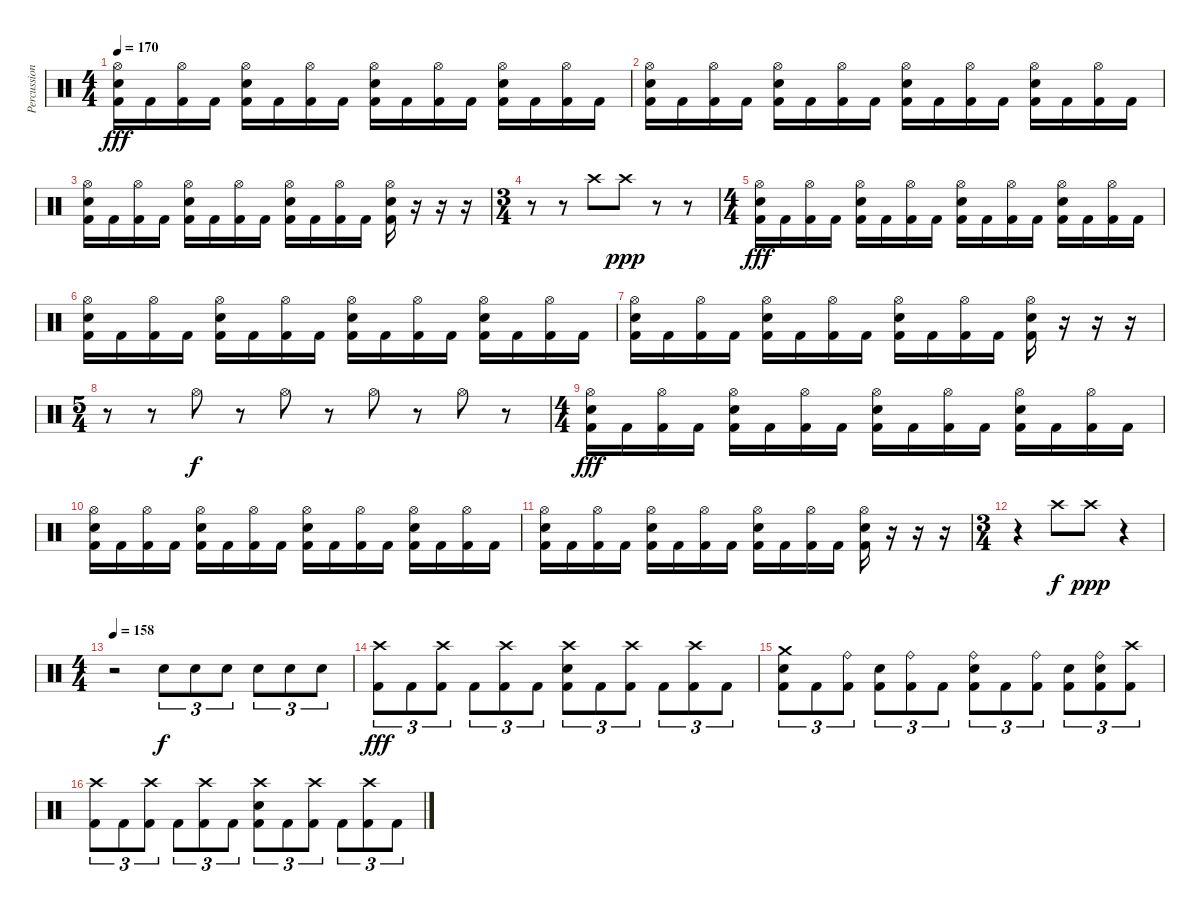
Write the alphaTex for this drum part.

\track ("Percussion" "Percussion") {instrument percussion}
\staff {score}
\articulation defaults
\ts (4 4)
\tempo 170
\clef neutral
\ks c
("Hi-Hat (open)" "Electric Snare (hit)" "Kick (hit) 2").16{dy fff} "Kick (hit) 2".16 ("Hi-Hat (open)" "Kick (hit) 2").16 "Kick (hit) 2".16 ("Hi-Hat (open)" "Electric Snare (hit)" "Kick (hit) 2").16 "Kick (hit) 2".16 ("Hi-Hat (open)" "Kick (hit) 2").16 "Kick (hit) 2".16 ("Hi-Hat (open)" "Electric Snare (hit)" "Kick (hit) 2").16 "Kick (hit) 2".16 ("Hi-Hat (open)" "Kick (hit) 2").16 "Kick (hit) 2".16 ("Hi-Hat (open)" "Electric Snare (hit)" "Kick (hit) 2").16 "Kick (hit) 2".16 ("Hi-Hat (open)" "Kick (hit) 2").16 "Kick (hit) 2".16 |
("Hi-Hat (open)" "Electric Snare (hit)" "Kick (hit) 2").16 "Kick (hit) 2".16 ("Hi-Hat (open)" "Kick (hit) 2").16 "Kick (hit) 2".16 ("Hi-Hat (open)" "Electric Snare (hit)" "Kick (hit) 2").16 "Kick (hit) 2".16 ("Hi-Hat (open)" "Kick (hit) 2").16 "Kick (hit) 2".16 ("Hi-Hat (open)" "Electric Snare (hit)" "Kick (hit) 2").16 "Kick (hit) 2".16 ("Hi-Hat (open)" "Kick (hit) 2").16 "Kick (hit) 2".16 ("Hi-Hat (open)" "Electric Snare (hit)" "Kick (hit) 2").16 "Kick (hit) 2".16 ("Hi-Hat (open)" "Kick (hit) 2").16 "Kick (hit) 2".16 |
("Hi-Hat (open)" "Electric Snare (hit)" "Kick (hit) 2").16 "Kick (hit) 2".16 ("Hi-Hat (open)" "Kick (hit) 2").16 "Kick (hit) 2".16 ("Hi-Hat (open)" "Electric Snare (hit)" "Kick (hit) 2").16 "Kick (hit) 2".16 ("Hi-Hat (open)" "Kick (hit) 2").16 "Kick (hit) 2".16 ("Hi-Hat (open)" "Electric Snare (hit)" "Kick (hit) 2").16 "Kick (hit) 2".16 ("Hi-Hat (open)" "Kick (hit) 2").16 "Kick (hit) 2".16 ("Hi-Hat (open)" "Electric Snare (hit)" "Kick (hit) 2").16 r.16 r.16 r.16 |
\ts (3 4)
r.8 r.8 "Crash high (hit)".8 "Crash high (hit)".8{dy ppp} r.8 r.8 |
\ts (4 4)
("Hi-Hat (open)" "Electric Snare (hit)" "Kick (hit) 2").16{dy fff} "Kick (hit) 2".16 ("Hi-Hat (open)" "Kick (hit) 2").16 "Kick (hit) 2".16 ("Hi-Hat (open)" "Electric Snare (hit)" "Kick (hit) 2").16 "Kick (hit) 2".16 ("Hi-Hat (open)" "Kick (hit) 2").16 "Kick (hit) 2".16 ("Hi-Hat (open)" "Electric Snare (hit)" "Kick (hit) 2").16 "Kick (hit) 2".16 ("Hi-Hat (open)" "Kick (hit) 2").16 "Kick (hit) 2".16 ("Hi-Hat (open)" "Electric Snare (hit)" "Kick (hit) 2").16 "Kick (hit) 2".16 ("Hi-Hat (open)" "Kick (hit) 2").16 "Kick (hit) 2".16 |
("Hi-Hat (open)" "Electric Snare (hit)" "Kick (hit) 2").16 "Kick (hit) 2".16 ("Hi-Hat (open)" "Kick (hit) 2").16 "Kick (hit) 2".16 ("Hi-Hat (open)" "Electric Snare (hit)" "Kick (hit) 2").16 "Kick (hit) 2".16 ("Hi-Hat (open)" "Kick (hit) 2").16 "Kick (hit) 2".16 ("Hi-Hat (open)" "Electric Snare (hit)" "Kick (hit) 2").16 "Kick (hit) 2".16 ("Hi-Hat (open)" "Kick (hit) 2").16 "Kick (hit) 2".16 ("Hi-Hat (open)" "Electric Snare (hit)" "Kick (hit) 2").16 "Kick (hit) 2".16 ("Hi-Hat (open)" "Kick (hit) 2").16 "Kick (hit) 2".16 |
("Hi-Hat (open)" "Electric Snare (hit)" "Kick (hit) 2").16 "Kick (hit) 2".16 ("Hi-Hat (open)" "Kick (hit) 2").16 "Kick (hit) 2".16 ("Hi-Hat (open)" "Electric Snare (hit)" "Kick (hit) 2").16 "Kick (hit) 2".16 ("Hi-Hat (open)" "Kick (hit) 2").16 "Kick (hit) 2".16 ("Hi-Hat (open)" "Electric Snare (hit)" "Kick (hit) 2").16 "Kick (hit) 2".16 ("Hi-Hat (open)" "Kick (hit) 2").16 "Kick (hit) 2".16 ("Hi-Hat (open)" "Electric Snare (hit)" "Kick (hit) 2").16 r.16 r.16 r.16 |
\ts (5 4)
r.8 r.8 "Hi-Hat (open)".8{dy f} r.8 "Hi-Hat (open)".8 r.8 "Hi-Hat (open)".8 r.8 "Hi-Hat (open)".8 r.8 |
\ts (4 4)
("Hi-Hat (open)" "Electric Snare (hit)" "Kick (hit) 2").16{dy fff} "Kick (hit) 2".16 ("Hi-Hat (open)" "Kick (hit) 2").16 "Kick (hit) 2".16 ("Hi-Hat (open)" "Electric Snare (hit)" "Kick (hit) 2").16 "Kick (hit) 2".16 ("Hi-Hat (open)" "Kick (hit) 2").16 "Kick (hit) 2".16 ("Hi-Hat (open)" "Electric Snare (hit)" "Kick (hit) 2").16 "Kick (hit) 2".16 ("Hi-Hat (open)" "Kick (hit) 2").16 "Kick (hit) 2".16 ("Hi-Hat (open)" "Electric Snare (hit)" "Kick (hit) 2").16 "Kick (hit) 2".16 ("Hi-Hat (open)" "Kick (hit) 2").16 "Kick (hit) 2".16 |
("Hi-Hat (open)" "Electric Snare (hit)" "Kick (hit) 2").16 "Kick (hit) 2".16 ("Hi-Hat (open)" "Kick (hit) 2").16 "Kick (hit) 2".16 ("Hi-Hat (open)" "Electric Snare (hit)" "Kick (hit) 2").16 "Kick (hit) 2".16 ("Hi-Hat (open)" "Kick (hit) 2").16 "Kick (hit) 2".16 ("Hi-Hat (open)" "Electric Snare (hit)" "Kick (hit) 2").16 "Kick (hit) 2".16 ("Hi-Hat (open)" "Kick (hit) 2").16 "Kick (hit) 2".16 ("Hi-Hat (open)" "Electric Snare (hit)" "Kick (hit) 2").16 "Kick (hit) 2".16 ("Hi-Hat (open)" "Kick (hit) 2").16 "Kick (hit) 2".16 |
("Hi-Hat (open)" "Electric Snare (hit)" "Kick (hit) 2").16 "Kick (hit) 2".16 ("Hi-Hat (open)" "Kick (hit) 2").16 "Kick (hit) 2".16 ("Hi-Hat (open)" "Electric Snare (hit)" "Kick (hit) 2").16 "Kick (hit) 2".16 ("Hi-Hat (open)" "Kick (hit) 2").16 "Kick (hit) 2".16 ("Hi-Hat (open)" "Electric Snare (hit)" "Kick (hit) 2").16 "Kick (hit) 2".16 ("Hi-Hat (open)" "Kick (hit) 2").16 "Kick (hit) 2".16 ("Hi-Hat (open)" "Electric Snare (hit)" "Kick (hit) 2").16 r.16 r.16 r.16 |
\ts (3 4)
r.4 "Crash high (hit)".8{dy f} "Crash high (hit)".8{dy ppp} r.4 |
\ts (4 4)
\tempo 158
r.2 "Electric Snare (hit)".8{tu (3 2) dy f} "Electric Snare (hit)".8{tu (3 2)} "Electric Snare (hit)".8{tu (3 2)} "Electric Snare (hit)".8{tu (3 2)} "Electric Snare (hit)".8{tu (3 2)} "Electric Snare (hit)".8{tu (3 2)} |
("Crash high (hit)" "Kick (hit) 2").8{tu (3 2) dy fff} "Kick (hit) 2".8{tu (3 2)} ("Crash high (hit)" "Kick (hit) 2").8{tu (3 2)} "Kick (hit) 2".8{tu (3 2)} ("Crash high (hit)" "Kick (hit) 2").8{tu (3 2)} "Kick (hit) 2".8{tu (3 2)} ("Crash high (hit)" "Electric Snare (hit)" "Kick (hit) 2").8{tu (3 2)} "Kick (hit) 2".8{tu (3 2)} ("Crash high (hit)" "Kick (hit) 2").8{tu (3 2)} "Kick (hit) 2".8{tu (3 2)} ("Crash high (hit)" "Kick (hit) 2").8{tu (3 2)} "Kick (hit) 2".8{tu (3 2)} |
("Crash medium (hit)" "Electric Snare (hit)" "Kick (hit) 2").8{tu (3 2)} "Kick (hit) 2".8{tu (3 2)} ("Ride (bell)" "Kick (hit) 2").8{tu (3 2)} ("Electric Snare (hit)" "Kick (hit) 2").8{tu (3 2)} ("Ride (bell)" "Kick (hit) 2").8{tu (3 2)} "Kick (hit) 2".8{tu (3 2)} ("Ride (bell)" "Electric Snare (hit)" "Kick (hit) 2").8{tu (3 2)} "Kick (hit) 2".8{tu (3 2)} ("Ride (bell)" "Kick (hit) 2").8{tu (3 2)} ("Electric Snare (hit)" "Kick (hit) 2").8{tu (3 2)} ("Ride (bell)" "Electric Snare (hit)" "Kick (hit) 2").8{tu (3 2)} ("Crash high (hit)" "Kick (hit) 2").8{tu (3 2)} |
("Crash high (hit)" "Kick (hit) 2").8{tu (3 2)} "Kick (hit) 2".8{tu (3 2)} ("Crash high (hit)" "Kick (hit) 2").8{tu (3 2)} "Kick (hit) 2".8{tu (3 2)} ("Crash high (hit)" "Kick (hit) 2").8{tu (3 2)} "Kick (hit) 2".8{tu (3 2)} ("Crash high (hit)" "Electric Snare (hit)" "Kick (hit) 2").8{tu (3 2)} "Kick (hit) 2".8{tu (3 2)} ("Crash high (hit)" "Kick (hit) 2").8{tu (3 2)} "Kick (hit) 2".8{tu (3 2)} ("Crash high (hit)" "Kick (hit) 2").8{tu (3 2)} "Kick (hit) 2".8{tu (3 2)}
